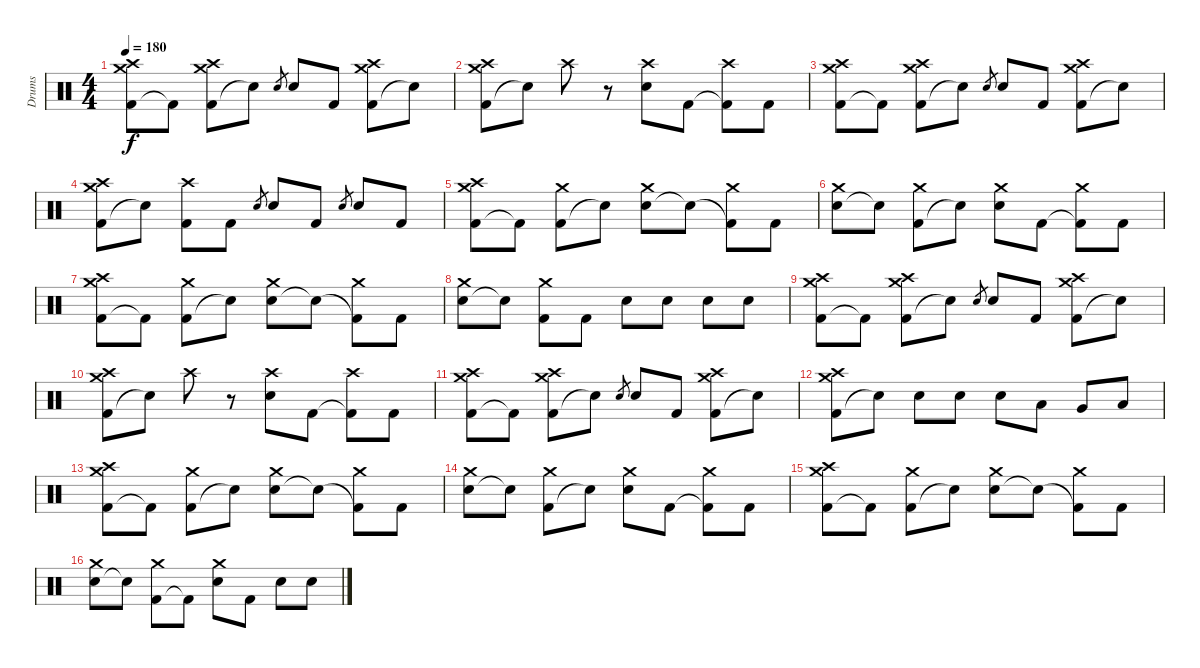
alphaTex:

\track ("Drums" "Drums") {instrument percussion}
\staff {score}
\articulation defaults
\ts (4 4)
\tempo 180
\clef neutral
\ks c
("Kick (hit) 2" "Crash medium (hit)" "Crash high (hit)").8{dy f} "Kick (hit) 2"{t}.8 ("Kick (hit) 2" "Crash medium (hit)" "Crash high (hit)").8 "Electric Snare (hit)"{t}.8 "Electric Snare (hit)".8{gr} "Electric Snare (hit)".8 "Kick (hit) 2".8 ("Kick (hit) 2" "Crash medium (hit)" "Crash high (hit)").8 "Snare (hit)"{t}.8 |
("Kick (hit) 2" "Crash medium (hit)" "Crash high (hit)").8 "Snare (hit)"{t}.8 "Crash high (hit)".8 r.8 ("Electric Snare (hit)" "Crash high (hit)").8 "Kick (hit) 2".8 ("Kick (hit) 2"{t} "Crash high (hit)").8 "Kick (hit) 2".8 |
("Kick (hit) 2" "Crash medium (hit)" "Crash high (hit)").8 "Kick (hit) 2"{t}.8 ("Kick (hit) 2" "Crash medium (hit)" "Crash high (hit)").8 "Electric Snare (hit)"{t}.8 "Electric Snare (hit)".8{gr} "Electric Snare (hit)".8 "Kick (hit) 2".8 ("Kick (hit) 2" "Crash medium (hit)" "Crash high (hit)").8 "Snare (hit)"{t}.8 |
("Kick (hit) 2" "Crash medium (hit)" "Crash high (hit)").8 "Snare (hit)"{t}.8 ("Kick (hit) 2" "Crash high (hit)").8 "Kick (hit) 2".8 "Electric Snare (hit)".8{gr} "Electric Snare (hit)".8 "Kick (hit) 2".8 "Electric Snare (hit)".8{gr} "Electric Snare (hit)".8 "Kick (hit) 2".8 |
("Kick (hit) 2" "Crash medium (hit)" "Crash high (hit)").8 "Kick (hit) 2"{t}.8 ("Kick (hit) 2" "Crash medium (hit)").8 "Snare (hit)"{t}.8 ("Electric Snare (hit)" "Crash medium (hit)").8 "Snare (hit)"{t}.8 ("Kick (hit) 2"{t} "Crash medium (hit)").8 "Kick (hit) 2".8 |
("Electric Snare (hit)" "Crash medium (hit)").8 "Snare (hit)"{t}.8 ("Kick (hit) 2" "Crash medium (hit)").8 "Snare (hit)"{t}.8 ("Electric Snare (hit)" "Crash medium (hit)").8 "Kick (hit) 2".8 ("Kick (hit) 2"{t} "Crash medium (hit)").8 "Kick (hit) 2".8 |
("Kick (hit) 2" "Crash medium (hit)" "Crash high (hit)").8 "Kick (hit) 2"{t}.8 ("Kick (hit) 2" "Crash medium (hit)").8 "Snare (hit)"{t}.8 ("Electric Snare (hit)" "Crash medium (hit)").8 "Snare (hit)"{t}.8 ("Kick (hit) 2"{t} "Crash medium (hit)").8 "Kick (hit) 2".8 |
("Electric Snare (hit)" "Crash medium (hit)").8 "Snare (hit)"{t}.8 ("Kick (hit) 2" "Crash medium (hit)").8 "Kick (hit) 2".8 "Electric Snare (hit)".8 "Electric Snare (hit)".8 "Electric Snare (hit)".8 "Electric Snare (hit)".8 |
("Kick (hit) 2" "Crash medium (hit)" "Crash high (hit)").8 "Kick (hit) 2"{t}.8 ("Kick (hit) 2" "Crash medium (hit)" "Crash high (hit)").8 "Electric Snare (hit)"{t}.8 "Electric Snare (hit)".8{gr} "Electric Snare (hit)".8 "Kick (hit) 2".8 ("Kick (hit) 2" "Crash medium (hit)" "Crash high (hit)").8 "Snare (hit)"{t}.8 |
("Kick (hit) 2" "Crash medium (hit)" "Crash high (hit)").8 "Snare (hit)"{t}.8 "Crash high (hit)".8 r.8 ("Electric Snare (hit)" "Crash high (hit)").8 "Kick (hit) 2".8 ("Kick (hit) 2"{t} "Crash high (hit)").8 "Kick (hit) 2".8 |
("Kick (hit) 2" "Crash medium (hit)" "Crash high (hit)").8 "Kick (hit) 2"{t}.8 ("Kick (hit) 2" "Crash medium (hit)" "Crash high (hit)").8 "Electric Snare (hit)"{t}.8 "Electric Snare (hit)".8{gr} "Electric Snare (hit)".8 "Kick (hit) 2".8 ("Kick (hit) 2" "Crash medium (hit)" "Crash high (hit)").8 "Snare (hit)"{t}.8 |
("Kick (hit) 2" "Crash medium (hit)" "Crash high (hit)").8 "Snare (hit)"{t}.8 "Electric Snare (hit)".8 "Electric Snare (hit)".8 "Electric Snare (hit)".8 "Low Tom (hit)".8 "Very Low Tom (hit)".8 "Low Floor Tom (hit)".8 |
("Kick (hit) 2" "Crash medium (hit)" "Crash high (hit)").8 "Kick (hit) 2"{t}.8 ("Kick (hit) 2" "Crash medium (hit)").8 "Snare (hit)"{t}.8 ("Electric Snare (hit)" "Crash medium (hit)").8 "Snare (hit)"{t}.8 ("Kick (hit) 2"{t} "Crash medium (hit)").8 "Kick (hit) 2".8 |
("Electric Snare (hit)" "Crash medium (hit)").8 "Snare (hit)"{t}.8 ("Kick (hit) 2" "Crash medium (hit)").8 "Snare (hit)"{t}.8 ("Electric Snare (hit)" "Crash medium (hit)").8 "Kick (hit) 2".8 ("Kick (hit) 2"{t} "Crash medium (hit)").8 "Kick (hit) 2".8 |
("Kick (hit) 2" "Crash medium (hit)" "Crash high (hit)").8 "Kick (hit) 2"{t}.8 ("Kick (hit) 2" "Crash medium (hit)").8 "Snare (hit)"{t}.8 ("Electric Snare (hit)" "Crash medium (hit)").8 "Snare (hit)"{t}.8 ("Kick (hit) 2"{t} "Crash medium (hit)").8 "Kick (hit) 2".8 |
("Electric Snare (hit)" "Crash medium (hit)").8 "Snare (hit)"{t}.8 ("Kick (hit) 2" "Crash medium (hit)").8 "Kick (hit) 2"{t}.8 ("Electric Snare (hit)" "Crash medium (hit)").8 "Kick (hit) 2".8 "Electric Snare (hit)".8 "Electric Snare (hit)".8
